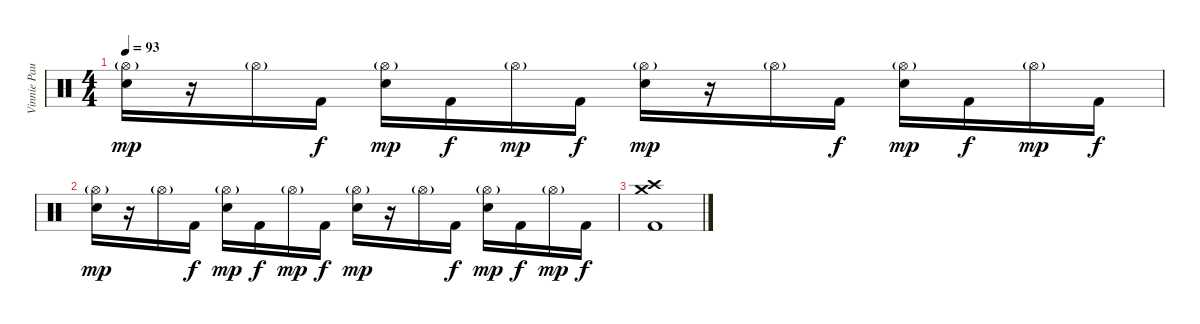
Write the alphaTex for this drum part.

\track ("Vinnie Paul" "Vinnie Pau") {instrument percussion}
\staff {score}
\articulation defaults
\ts (4 4)
\tempo 93
\clef neutral
\ks c
("Hi-Hat (open)"{g} "Electric Snare (hit)").16{dy mp} r.16 "Hi-Hat (open)"{g}.16 "Kick (hit) 2".16{dy f} ("Hi-Hat (open)"{g} "Electric Snare (hit)").16{dy mp} "Kick (hit) 2".16{dy f} "Hi-Hat (open)"{g}.16{dy mp} "Kick (hit) 2".16{dy f} ("Hi-Hat (open)"{g} "Electric Snare (hit)").16{dy mp} r.16 "Hi-Hat (open)"{g}.16 "Kick (hit) 2".16{dy f} ("Hi-Hat (open)"{g} "Electric Snare (hit)").16{dy mp} "Kick (hit) 2".16{dy f} "Hi-Hat (open)"{g}.16{dy mp} "Kick (hit) 2".16{dy f} |
("Hi-Hat (open)"{g} "Electric Snare (hit)").16{dy mp} r.16 "Hi-Hat (open)"{g}.16 "Kick (hit) 2".16{dy f} ("Hi-Hat (open)"{g} "Electric Snare (hit)").16{dy mp} "Kick (hit) 2".16{dy f} "Hi-Hat (open)"{g}.16{dy mp} "Kick (hit) 2".16{dy f} ("Hi-Hat (open)"{g} "Electric Snare (hit)").16{dy mp} r.16 "Hi-Hat (open)"{g}.16 "Kick (hit) 2".16{dy f} ("Hi-Hat (open)"{g} "Electric Snare (hit)").16{dy mp} "Kick (hit) 2".16{dy f} "Hi-Hat (open)"{g}.16{dy mp} "Kick (hit) 2".16{dy f} |
("Crash high (hit)" "Crash medium (hit)" "Kick (hit) 2").1
